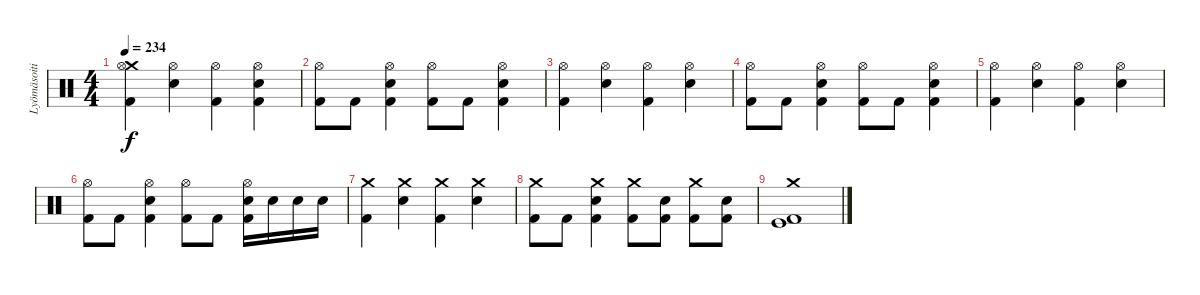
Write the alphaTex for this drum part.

\track ("Lyömäsoitin" "Lyömäsoiti") {instrument percussion}
\staff {score}
\articulation defaults
\ts (4 4)
\tempo 234
\clef neutral
\ks c
("Crash medium (hit)" "Hi-Hat (open)" "Kick (hit) 2").4{dy f} ("Hi-Hat (open)" "Electric Snare (hit)").4 ("Hi-Hat (open)" "Kick (hit) 2").4 ("Hi-Hat (open)" "Electric Snare (hit)" "Kick (hit) 2").4 |
("Hi-Hat (open)" "Kick (hit) 2").8 "Kick (hit) 2".8 ("Hi-Hat (open)" "Electric Snare (hit)" "Kick (hit) 2").4 ("Hi-Hat (open)" "Kick (hit) 2").8 "Kick (hit) 2".8 ("Hi-Hat (open)" "Electric Snare (hit)" "Kick (hit) 2").4 |
("Hi-Hat (open)" "Kick (hit) 2").4 ("Hi-Hat (open)" "Electric Snare (hit)").4 ("Hi-Hat (open)" "Kick (hit) 2").4 ("Hi-Hat (open)" "Electric Snare (hit)").4 |
("Hi-Hat (open)" "Kick (hit) 2").8 "Kick (hit) 2".8 ("Hi-Hat (open)" "Electric Snare (hit)" "Kick (hit) 2").4 ("Hi-Hat (open)" "Kick (hit) 2").8 "Kick (hit) 2".8 ("Hi-Hat (open)" "Electric Snare (hit)" "Kick (hit) 2").4 |
("Hi-Hat (open)" "Kick (hit) 2").4 ("Hi-Hat (open)" "Electric Snare (hit)").4 ("Hi-Hat (open)" "Kick (hit) 2").4 ("Hi-Hat (open)" "Electric Snare (hit)").4 |
("Hi-Hat (open)" "Kick (hit) 2").8 "Kick (hit) 2".8 ("Hi-Hat (open)" "Electric Snare (hit)" "Kick (hit) 2").4 ("Hi-Hat (open)" "Kick (hit) 2").8 "Kick (hit) 2".8 ("Hi-Hat (open)" "Electric Snare (hit)" "Kick (hit) 2").16 "Electric Snare (hit)".16 "Electric Snare (hit)".16 "Electric Snare (hit)".16 |
("Crash medium (hit)" "Kick (hit) 2").4 ("Crash medium (hit)" "Electric Snare (hit)").4 ("Crash medium (hit)" "Kick (hit) 2").4 ("Crash medium (hit)" "Electric Snare (hit)").4 |
("Crash medium (hit)" "Kick (hit) 2").8 "Kick (hit) 2".8 ("Crash medium (hit)" "Electric Snare (hit)" "Kick (hit) 2").4 ("Crash medium (hit)" "Kick (hit) 2").8 ("Electric Snare (hit)" "Kick (hit) 2").8 ("Crash medium (hit)" "Kick (hit) 2").8 ("Electric Snare (hit)" "Kick (hit) 2").8 |
("Crash medium (hit)" "Kick (hit)" "Kick (hit) 2").1
